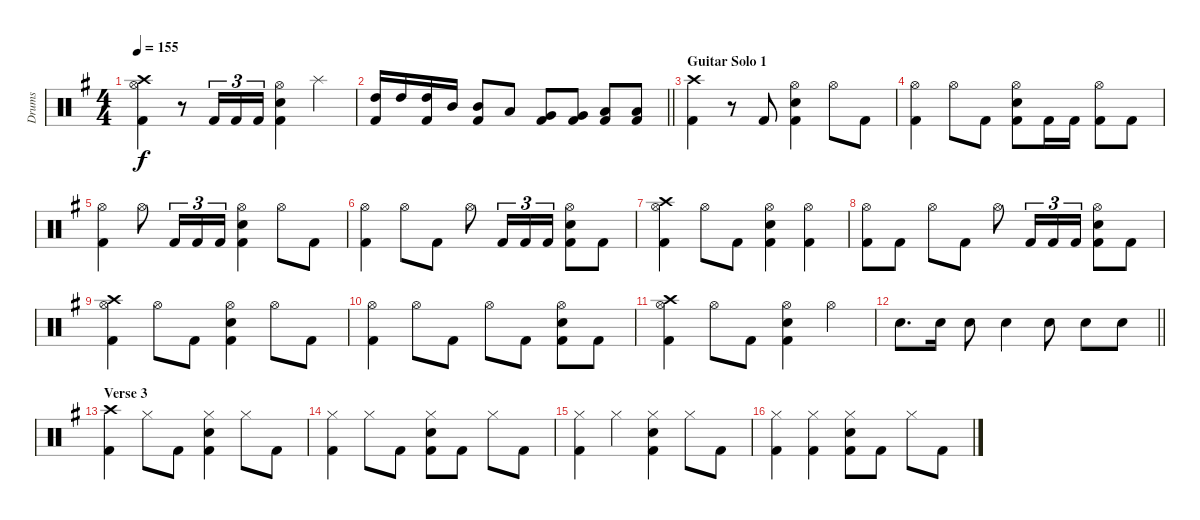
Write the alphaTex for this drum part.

\track ("Drums" "Drums") {instrument percussion}
\staff {score}
\articulation defaults
\ts (4 4)
\tempo 155
\clef neutral
\ks g
("Crash high (hit)" "Hi-Hat (open)" "Kick (hit) 2").4{dy f} r.8 "Kick (hit) 2".16{tu (3 2)} "Kick (hit) 2".16{tu (3 2)} "Kick (hit) 2".16{tu (3 2)} ("Hi-Hat (open)" "Snare (hit) 2" "Kick (hit) 2").4 "Splash (hit)".4 |
\barLineRight lightlight
("Kick (hit) 2" "High Tom (hit)").16 "High Tom (hit)".16 ("Kick (hit) 2" "High Tom (hit)").16 "Mid Tom (hit)".16 ("Kick (hit) 2" "Mid Tom (hit)").8 "Low Tom (hit)".8 ("Very Low Tom (hit)" "Kick (hit) 2").8 ("Very Low Tom (hit)" "Kick (hit) 2").8 ("Low Floor Tom (hit)" "Kick (hit) 2").8 ("Low Floor Tom (hit)" "Kick (hit) 2").8 |
\section ("" "Guitar Solo 1")
("Crash high (hit)" "Kick (hit) 2").4 r.8 "Kick (hit) 2".8 ("Hi-Hat (open)" "Snare (hit) 2" "Kick (hit) 2").4 "Hi-Hat (open)".8 "Kick (hit) 2".8 |
("Hi-Hat (open)" "Kick (hit) 2").4 "Hi-Hat (open)".8 "Kick (hit) 2".8 ("Hi-Hat (open)" "Snare (hit) 2" "Kick (hit) 2").8 "Kick (hit) 2".16 "Kick (hit) 2".16 ("Hi-Hat (open)" "Kick (hit) 2").8 "Kick (hit) 2".8 |
("Hi-Hat (open)" "Kick (hit) 2").4 "Hi-Hat (open)".8 "Kick (hit) 2".16{tu (3 2)} "Kick (hit) 2".16{tu (3 2)} "Kick (hit) 2".16{tu (3 2)} ("Hi-Hat (open)" "Snare (hit) 2" "Kick (hit) 2").4 "Hi-Hat (open)".8 "Kick (hit) 2".8 |
("Hi-Hat (open)" "Kick (hit) 2").4 "Hi-Hat (open)".8 "Kick (hit) 2".8 "Hi-Hat (open)".8 "Kick (hit) 2".16{tu (3 2)} "Kick (hit) 2".16{tu (3 2)} "Kick (hit) 2".16{tu (3 2)} ("Hi-Hat (open)" "Snare (hit) 2" "Kick (hit) 2").8 "Kick (hit) 2".8 |
("Crash high (hit)" "Hi-Hat (open)" "Kick (hit) 2").4 "Hi-Hat (open)".8 "Kick (hit) 2".8 ("Hi-Hat (open)" "Snare (hit) 2" "Kick (hit) 2").4 ("Hi-Hat (open)" "Kick (hit) 2").4 |
("Hi-Hat (open)" "Kick (hit) 2").8 "Kick (hit) 2".8 "Hi-Hat (open)".8 "Kick (hit) 2".8 "Hi-Hat (open)".8 "Kick (hit) 2".16{tu (3 2)} "Kick (hit) 2".16{tu (3 2)} "Kick (hit) 2".16{tu (3 2)} ("Hi-Hat (open)" "Snare (hit) 2" "Kick (hit) 2").8 "Kick (hit) 2".8 |
("Crash high (hit)" "Hi-Hat (open)" "Kick (hit) 2").4 "Hi-Hat (open)".8 "Kick (hit) 2".8 ("Hi-Hat (open)" "Snare (hit) 2" "Kick (hit) 2").4 "Hi-Hat (open)".8 "Kick (hit) 2".8 |
("Hi-Hat (open)" "Kick (hit) 2").4 "Hi-Hat (open)".8 "Kick (hit) 2".8 "Hi-Hat (open)".8 "Kick (hit) 2".8 ("Hi-Hat (open)" "Snare (hit) 2" "Kick (hit) 2").8 "Kick (hit) 2".8 |
("Crash high (hit)" "Hi-Hat (open)" "Kick (hit) 2").4 "Hi-Hat (open)".8 "Kick (hit) 2".8 ("Hi-Hat (open)" "Snare (hit) 2" "Kick (hit) 2").4 "Hi-Hat (open)".4 |
\barLineRight lightlight "Snare (hit) 2".8{d} "Snare (hit) 2".16 "Snare (hit) 2".8 "Snare (hit) 2".4 "Snare (hit) 2".8 "Snare (hit) 2".8 "Snare (hit) 2".8
|
\section ("" "Verse 3")
("Crash high (hit)" "Kick (hit) 2").4 "Hi-Hat (closed)".8 "Kick (hit) 2".8 ("Hi-Hat (closed)" "Snare (hit) 2" "Kick (hit) 2").4 "Hi-Hat (closed)".8 "Kick (hit) 2".8 |
("Hi-Hat (closed)" "Kick (hit) 2").4 "Hi-Hat (closed)".8 "Kick (hit) 2".8 ("Hi-Hat (closed)" "Snare (hit) 2" "Kick (hit) 2").8 "Kick (hit) 2".8 "Hi-Hat (closed)".8 "Kick (hit) 2".8 |
("Hi-Hat (closed)" "Kick (hit) 2").4 "Hi-Hat (closed)".4 ("Hi-Hat (closed)" "Snare (hit) 2" "Kick (hit) 2").4 "Hi-Hat (closed)".8 "Kick (hit) 2".8 |
("Hi-Hat (closed)" "Kick (hit) 2").4 ("Hi-Hat (closed)" "Kick (hit) 2").4 ("Hi-Hat (closed)" "Snare (hit) 2" "Kick (hit) 2").8 "Kick (hit) 2".8 "Hi-Hat (closed)".8 "Kick (hit) 2".8
